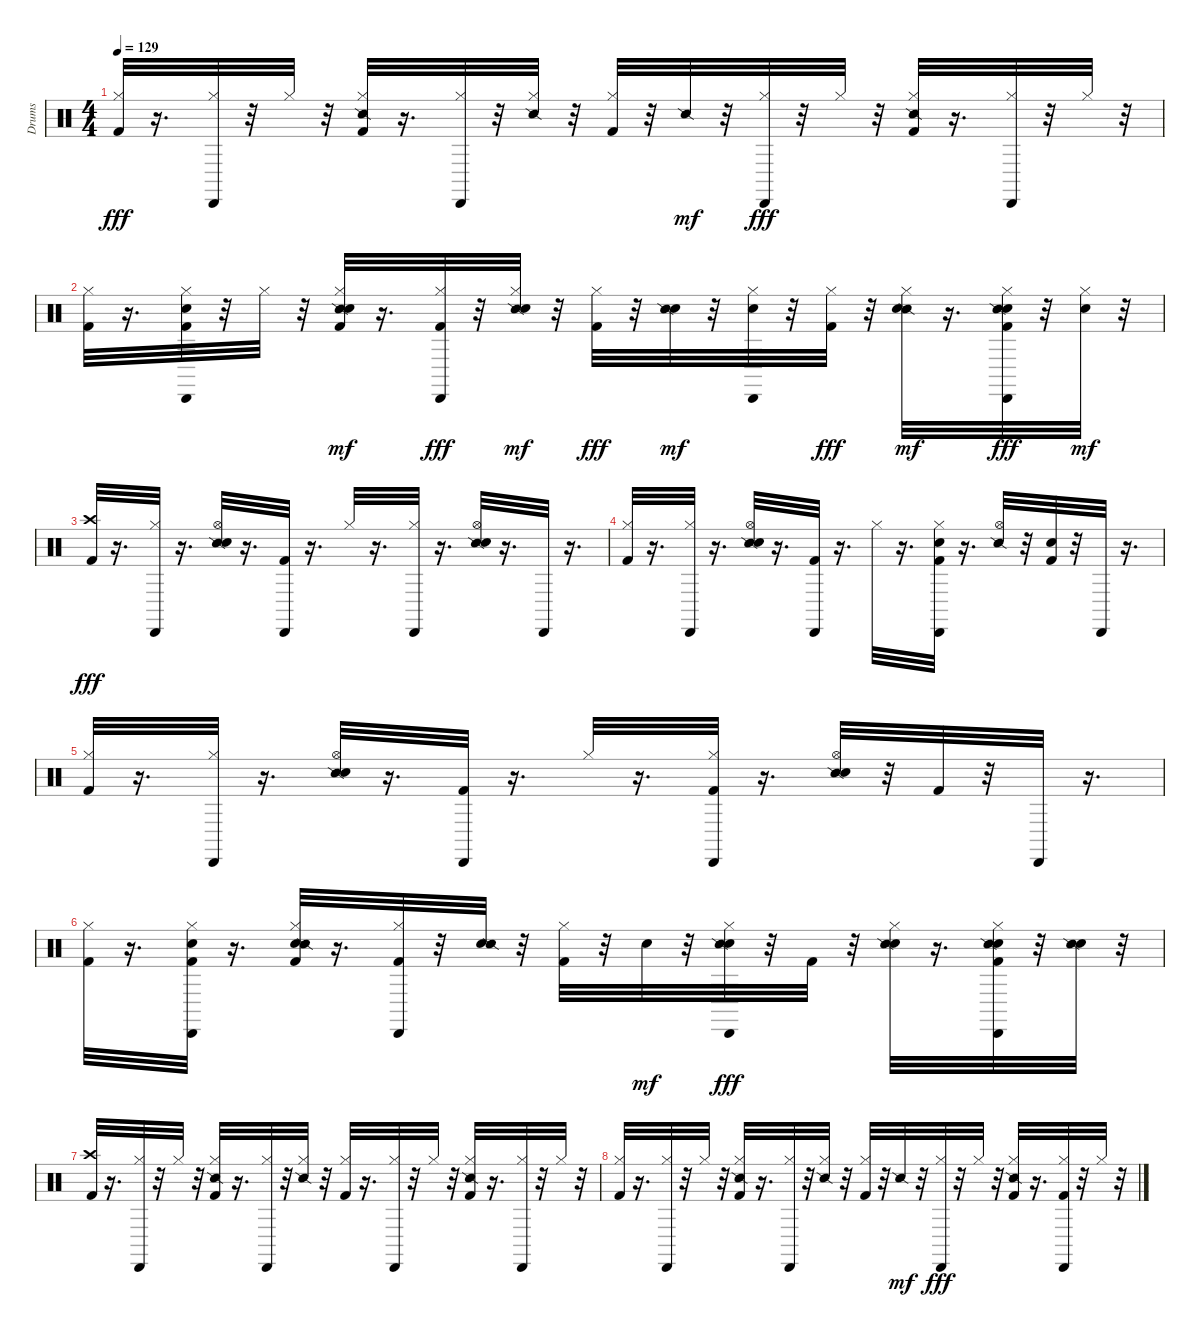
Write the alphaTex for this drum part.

\track ("Drums" "Drums") {instrument percussion}
\staff {score}
\articulation defaults
\ts (4 4)
\tempo 129
\clef neutral
\ks c
("Kick (hit) 2" "Hi-Hat (closed)").32{dy fff} r.16{d} ("Cabasa (hit)" "Hi-Hat (closed)").32 r.32 "Hi-Hat (closed)".32 r.32 ("Snare (side stick) 2" "Hi-Hat (closed)" "Kick (hit) 2").32 r.16{d} ("Cabasa (hit)" "Hi-Hat (closed)").32 r.32 ("Snare (side stick) 2" "Hi-Hat (closed)").32 r.32 ("Kick (hit) 2" "Hi-Hat (closed)").32 r.32 "Snare (side stick) 2".32{dy mf} r.32 ("Cabasa (hit)" "Hi-Hat (closed)").32{dy fff} r.32 "Hi-Hat (closed)".32 r.32 ("Snare (side stick) 2" "Hi-Hat (closed)" "Kick (hit) 2").32 r.16{d} ("Cabasa (hit)" "Hi-Hat (closed)").32 r.32 "Hi-Hat (closed)".32 r.32 |
("Kick (hit) 2" "Hi-Hat (closed)").32 r.16{d} ("Cabasa (hit)" "Hi-Hat (closed)" "Hand Clap (hit)" "Kick (hit) 2").32 r.32 "Hi-Hat (closed)".32 r.32 ("Snare (side stick) 2" "Hi-Hat (closed)" "Kick (hit) 2" "Hand Clap (hit)").32{dy mf} r.16{d} ("Cabasa (hit)" "Hi-Hat (closed)" "Kick (hit) 2").32{dy fff} r.32 ("Snare (side stick) 2" "Hi-Hat (closed)" "Hand Clap (hit)").32{dy mf} r.32 ("Kick (hit) 2" "Hi-Hat (closed)").32{dy fff} r.32 ("Hand Clap (hit)" "Snare (side stick) 2").32{dy mf} r.32 ("Cabasa (hit)" "Hi-Hat (closed)" "Hand Clap (hit)").32 r.32 ("Hi-Hat (closed)" "Kick (hit) 2").32{dy fff} r.32 ("Snare (side stick) 2" "Hi-Hat (closed)" "Hand Clap (hit)").32{dy mf} r.16{d} ("Kick (hit) 2" "Cabasa (hit)" "Hi-Hat (closed)" "Hand Clap (hit)" "Snare (side stick) 2").32{dy fff} r.32 ("Hi-Hat (closed)" "Hand Clap (hit)").32{dy mf} r.32 |
("Kick (hit) 2" "Crash high (hit)").32{dy fff} r.16{d} ("Hi-Hat (closed)" "Cabasa (hit)").32 r.16{d} ("Snare (side stick) 2" "Hi-Hat (open)" "Hand Clap (hit)").32 r.16{d} ("Kick (hit) 2" "Cabasa (hit)").32 r.16{d} "Hi-Hat (closed)".32 r.16{d} ("Hi-Hat (closed)" "Cabasa (hit)").32 r.16{d} ("Snare (side stick) 2" "Hi-Hat (open)" "Hand Clap (hit)").32 r.16{d} "Cabasa (hit)".32 r.16{d} |
("Kick (hit) 2" "Hi-Hat (closed)").32 r.16{d} ("Hi-Hat (closed)" "Cabasa (hit)").32 r.16{d} ("Snare (side stick) 2" "Hi-Hat (open)" "Hand Clap (hit)").32 r.16{d} ("Kick (hit) 2" "Cabasa (hit)").32 r.16{d} "Hi-Hat (closed)".32 r.16{d} ("Kick (hit) 2" "Hi-Hat (closed)" "Hand Clap (hit)" "Cabasa (hit)").32 r.16{d} ("Snare (side stick) 2" "Hi-Hat (open)").32 r.32 ("Kick (hit) 2" "Hand Clap (hit)").32 r.32 "Cabasa (hit)".32 r.16{d} |
("Kick (hit) 2" "Hi-Hat (closed)").32 r.16{d} ("Hi-Hat (closed)" "Cabasa (hit)").32 r.16{d} ("Snare (side stick) 2" "Hi-Hat (open)" "Hand Clap (hit)").32 r.16{d} ("Kick (hit) 2" "Cabasa (hit)").32 r.16{d} "Hi-Hat (closed)".32 r.16{d} ("Kick (hit) 2" "Hi-Hat (closed)" "Cabasa (hit)").32 r.16{d} ("Snare (side stick) 2" "Hi-Hat (open)" "Hand Clap (hit)").32 r.32 "Kick (hit) 2".32 r.32 "Cabasa (hit)".32 r.16{d} |
("Kick (hit) 2" "Hi-Hat (closed)").32 r.16{d} ("Kick (hit) 2" "Hi-Hat (closed)" "Hand Clap (hit)" "Cabasa (hit)").32 r.16{d} ("Kick (hit) 2" "Hi-Hat (closed)" "Hand Clap (hit)" "Snare (side stick) 2").32 r.16{d} ("Kick (hit) 2" "Hi-Hat (closed)" "Cabasa (hit)").32 r.32 ("Hand Clap (hit)" "Snare (side stick) 2").32 r.32 ("Kick (hit) 2" "Hi-Hat (closed)").32 r.32 "Hand Clap (hit)".32{dy mf} r.32 ("Hi-Hat (closed)" "Hand Clap (hit)" "Snare (side stick) 2" "Cabasa (hit)").32{dy fff} r.32 "Kick (hit) 2".32 r.32 ("Hi-Hat (closed)" "Hand Clap (hit)" "Snare (side stick) 2").32 r.16{d} ("Kick (hit) 2" "Hi-Hat (closed)" "Hand Clap (hit)" "Snare (side stick) 2" "Cabasa (hit)").32 r.32 ("Hand Clap (hit)" "Snare (side stick) 2").32 r.32 |
("Kick (hit) 2" "Crash high (hit)").32 r.16{d} ("Cabasa (hit)" "Hi-Hat (closed)").32 r.32 "Hi-Hat (closed)".32 r.32 ("Snare (side stick) 2" "Hi-Hat (closed)" "Kick (hit) 2").32 r.16{d} ("Cabasa (hit)" "Hi-Hat (closed)").32 r.32 ("Snare (side stick) 2" "Hi-Hat (closed)").32 r.32 ("Kick (hit) 2" "Hi-Hat (closed)").32 r.16{d} ("Cabasa (hit)" "Hi-Hat (closed)").32 r.32 "Hi-Hat (closed)".32 r.32 ("Snare (side stick) 2" "Hi-Hat (closed)" "Kick (hit) 2").32 r.16{d} ("Cabasa (hit)" "Hi-Hat (closed)").32 r.32 "Hi-Hat (closed)".32 r.32 |
("Kick (hit) 2" "Hi-Hat (closed)").32 r.16{d} ("Cabasa (hit)" "Hi-Hat (closed)").32 r.32 "Hi-Hat (closed)".32 r.32 ("Snare (side stick) 2" "Hi-Hat (closed)" "Kick (hit) 2").32 r.16{d} ("Cabasa (hit)" "Hi-Hat (closed)").32 r.32 ("Snare (side stick) 2" "Hi-Hat (closed)").32 r.32 ("Kick (hit) 2" "Hi-Hat (closed)").32 r.32 "Snare (side stick) 2".32{dy mf} r.32 ("Cabasa (hit)" "Hi-Hat (closed)").32{dy fff} r.32 "Hi-Hat (closed)".32 r.32 ("Snare (side stick) 2" "Hi-Hat (closed)" "Kick (hit) 2").32 r.16{d} ("Kick (hit) 2" "Cabasa (hit)" "Hi-Hat (closed)").32 r.32 "Hi-Hat (closed)".32 r.32
